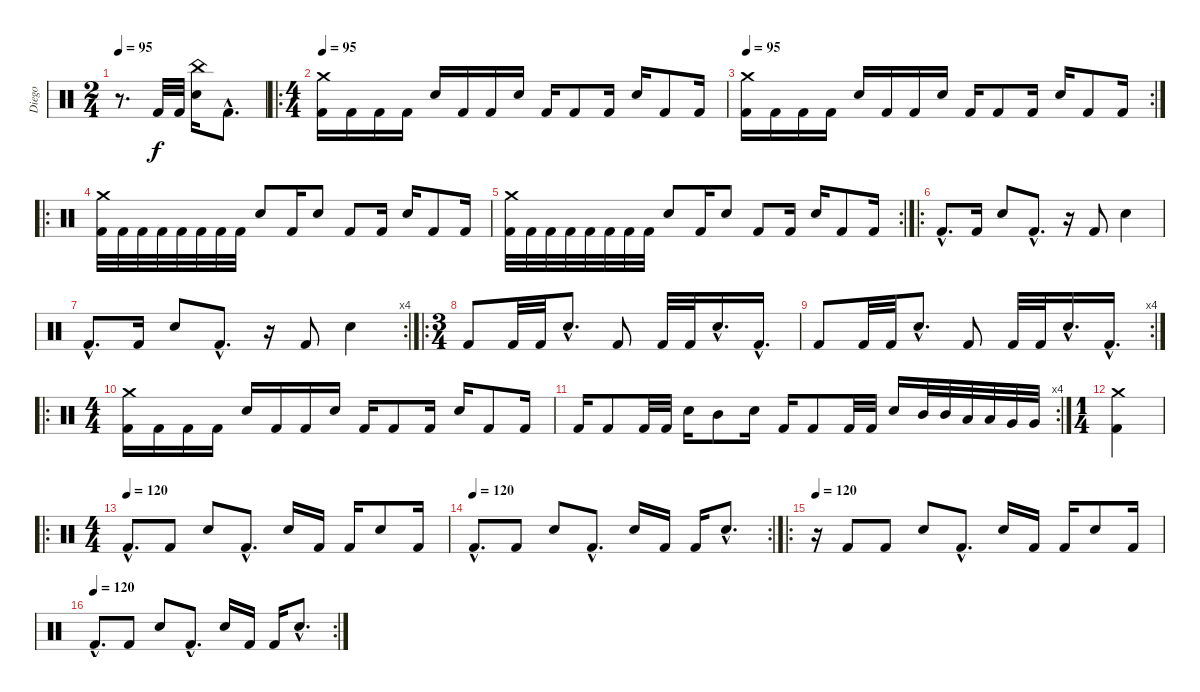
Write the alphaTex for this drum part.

\track ("Diego" "Diego") {instrument percussion}
\staff {score}
\articulation defaults
\ts (2 4)
\tempo 95
\clef neutral
\ks c
r.8{d dy f} "Kick (hit) 2".32 "Kick (hit) 2".32 ("China (hit)" "Snare (hit) 2").16 "Kick (hit) 2"{hac}.8{d} |
\ro
\ts (4 4)
\tempo 95
("Crash medium (hit)" "Kick (hit) 2").16 "Kick (hit) 2".16 "Kick (hit) 2".16 "Kick (hit) 2".16 "Snare (hit) 2".16 "Kick (hit) 2".16 "Kick (hit) 2".16 "Snare (hit) 2".16 "Kick (hit) 2".16 "Kick (hit) 2".8 "Kick (hit) 2".16 "Snare (hit) 2".16 "Kick (hit) 2".8 "Kick (hit) 2".16 |
\rc 2
\tempo 95
("Crash medium (hit)" "Kick (hit) 2").16 "Kick (hit) 2".16 "Kick (hit) 2".16 "Kick (hit) 2".16 "Snare (hit) 2".16 "Kick (hit) 2".16 "Kick (hit) 2".16 "Snare (hit) 2".16 "Kick (hit) 2".16 "Kick (hit) 2".8 "Kick (hit) 2".16 "Snare (hit) 2".16 "Kick (hit) 2".8 "Kick (hit) 2".16 |
\ro
("Crash medium (hit)" "Kick (hit) 2").32 "Kick (hit) 2".32 "Kick (hit) 2".32 "Kick (hit) 2".32 "Kick (hit) 2".32 "Kick (hit) 2".32 "Kick (hit) 2".32 "Kick (hit) 2".32 "Snare (hit) 2".8 "Kick (hit) 2".16 "Snare (hit) 2".8 "Kick (hit) 2".8 "Kick (hit) 2".16 "Snare (hit) 2".16 "Kick (hit) 2".8 "Kick (hit) 2".16 |
\rc 2
("Crash medium (hit)" "Kick (hit) 2").32 "Kick (hit) 2".32 "Kick (hit) 2".32 "Kick (hit) 2".32 "Kick (hit) 2".32 "Kick (hit) 2".32 "Kick (hit) 2".32 "Kick (hit) 2".32 "Snare (hit) 2".8 "Kick (hit) 2".16 "Snare (hit) 2".8 "Kick (hit) 2".8 "Kick (hit) 2".16 "Snare (hit) 2".16 "Kick (hit) 2".8 "Kick (hit) 2".16 |
\ro "Kick (hit) 2"{hac}.8{d} "Kick (hit) 2".16 "Snare (hit) 2".8 "Kick (hit) 2"{hac}.8{d}
r.16 "Kick (hit) 2".8 "Snare (hit) 2".4 |
\rc 4 "Kick (hit) 2"{hac}.8{d} "Kick (hit) 2".16 "Snare (hit) 2".8 "Kick (hit) 2"{hac}.8{d}
r.16 "Kick (hit) 2".8 "Snare (hit) 2".4 |
\ro
\ts (3 4)
"Kick (hit) 2".8 "Kick (hit) 2".32 "Kick (hit) 2".32 "Snare (hit) 2"{hac}.8{d} "Kick (hit) 2".8 "Kick (hit) 2".32 "Kick (hit) 2".32 "Snare (hit) 2"{hac}.16{d} "Kick (hit) 2"{hac}.16{d} |
\rc 4 "Kick (hit) 2".8 "Kick (hit) 2".32 "Kick (hit) 2".32 "Snare (hit) 2"{hac}.8{d} "Kick (hit) 2".8 "Kick (hit) 2".32 "Kick (hit) 2".32 "Snare (hit) 2"{hac}.16{d} "Kick (hit) 2"{hac}.16{d}
|
\ro
\ts (4 4)
("Crash medium (hit)" "Kick (hit) 2").16 "Kick (hit) 2".16 "Kick (hit) 2".16 "Kick (hit) 2".16 "Snare (hit) 2".16 "Kick (hit) 2".16 "Kick (hit) 2".16 "Snare (hit) 2".16 "Kick (hit) 2".16 "Kick (hit) 2".8 "Kick (hit) 2".16 "Snare (hit) 2".16 "Kick (hit) 2".8 "Kick (hit) 2".16 |
\rc 4 "Kick (hit) 2".16 "Kick (hit) 2".8 "Kick (hit) 2".32 "Kick (hit) 2".32 "Snare (hit) 2".16 "Mid Tom (hit)".8 "Snare (hit) 2".16 "Kick (hit) 2".16 "Kick (hit) 2".8 "Kick (hit) 2".32 "Kick (hit) 2".32 "Snare (hit) 2".16 "Mid Tom (hit)".32 "Mid Tom (hit)".32 "Low Tom (hit)".32 "Low Tom (hit)".32 "Very Low Tom (hit)".32 "Very Low Tom (hit)".32
|
\ts (1 4)
("Crash medium (hit)" "Kick (hit) 2").4 |
\ro
\ts (4 4)
\tempo (120)
"Kick (hit) 2"{hac}.8{d} "Kick (hit) 2".8 "Snare (hit) 2".8 "Kick (hit) 2"{hac}.8{d} "Snare (hit) 2".16 "Kick (hit) 2".16 "Kick (hit) 2".16 "Snare (hit) 2".8 "Kick (hit) 2".16 |
\rc 2
\tempo (120)
"Kick (hit) 2"{hac}.8{d} "Kick (hit) 2".8 "Snare (hit) 2".8 "Kick (hit) 2"{hac}.8{d} "Snare (hit) 2".16 "Kick (hit) 2".16 "Kick (hit) 2".16 "Snare (hit) 2"{hac}.8{d} |
\ro
\tempo 120
r.16 "Kick (hit) 2".8 "Kick (hit) 2".8 "Snare (hit) 2".8 "Kick (hit) 2"{hac}.8{d} "Snare (hit) 2".16 "Kick (hit) 2".16 "Kick (hit) 2".16 "Snare (hit) 2".8 "Kick (hit) 2".16 |
\rc 2
\tempo (120)
"Kick (hit) 2"{hac}.8{d} "Kick (hit) 2".8 "Snare (hit) 2".8 "Kick (hit) 2"{hac}.8{d} "Snare (hit) 2".16 "Kick (hit) 2".16 "Kick (hit) 2".16 "Snare (hit) 2"{hac}.8{d}
